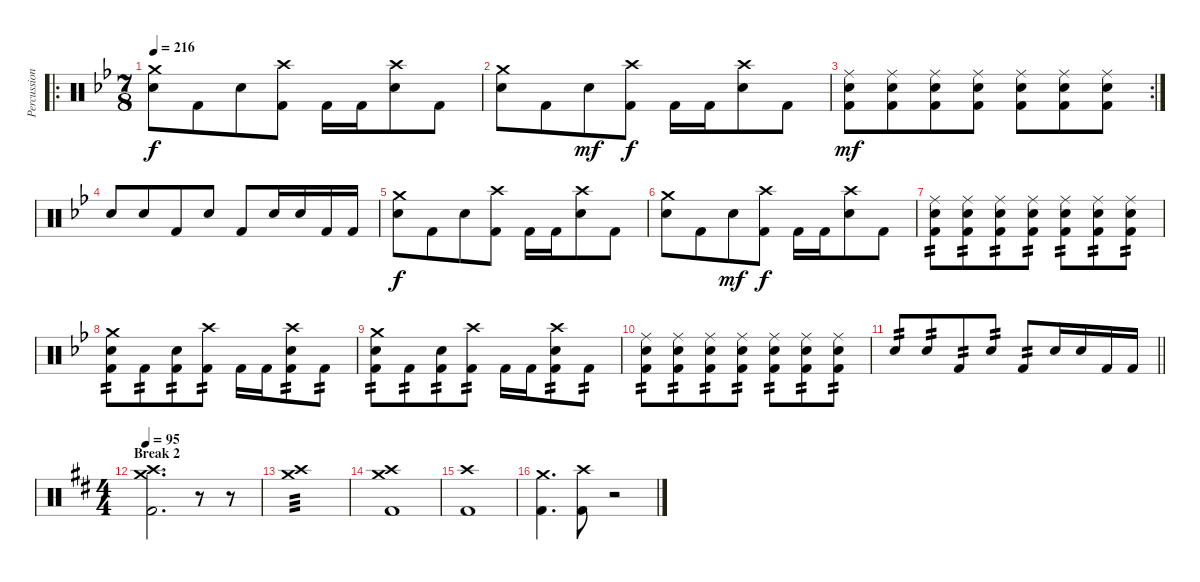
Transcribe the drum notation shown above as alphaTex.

\track ("Percussion" "Percussion") {instrument percussion}
\staff {score}
\articulation defaults
\ro
\ts (7 8)
\tempo 216
\clef neutral
\ks gminor
("Crash medium (hit)" "Electric Snare (hit)").8{dy f} "Kick (hit) 2".8 "Electric Snare (hit)".8 ("Crash high (hit)" "Kick (hit) 2").8 "Kick (hit) 2".16 "Kick (hit) 2".16 ("Crash high (hit)" "Electric Snare (hit)").8 "Kick (hit) 2".8 |
("Crash medium (hit)" "Electric Snare (hit)").8 "Kick (hit) 2".8 "Electric Snare (hit)".8{dy mf} ("Crash high (hit)" "Kick (hit) 2").8{dy f} "Kick (hit) 2".16 "Kick (hit) 2".16 ("Crash high (hit)" "Electric Snare (hit)").8 "Kick (hit) 2".8 |
\rc 2
("Ride (middle)" "Electric Snare (hit)" "Kick (hit) 2").8{dy mf} ("Ride (middle)" "Electric Snare (hit)" "Kick (hit) 2").8 ("Ride (middle)" "Electric Snare (hit)" "Kick (hit) 2").8 ("Ride (middle)" "Electric Snare (hit)" "Kick (hit) 2").8 ("Ride (middle)" "Electric Snare (hit)" "Kick (hit) 2").8 ("Ride (middle)" "Electric Snare (hit)" "Kick (hit) 2").8 ("Ride (middle)" "Electric Snare (hit)" "Kick (hit) 2").8 |
"Electric Snare (hit)".8 "Electric Snare (hit)".8 "Kick (hit) 2".8 "Electric Snare (hit)".8 "Kick (hit) 2".8 "Electric Snare (hit)".16 "Electric Snare (hit)".16 "Kick (hit) 2".16 "Kick (hit) 2".16 |
("Crash medium (hit)" "Electric Snare (hit)").8{dy f} "Kick (hit) 2".8 "Electric Snare (hit)".8 ("Crash high (hit)" "Kick (hit) 2").8 "Kick (hit) 2".16 "Kick (hit) 2".16 ("Crash high (hit)" "Electric Snare (hit)").8 "Kick (hit) 2".8 |
("Crash medium (hit)" "Electric Snare (hit)").8 "Kick (hit) 2".8 "Electric Snare (hit)".8{dy mf} ("Crash high (hit)" "Kick (hit) 2").8{dy f} "Kick (hit) 2".16 "Kick (hit) 2".16 ("Crash high (hit)" "Electric Snare (hit)").8 "Kick (hit) 2".8 |
("Ride (middle)" "Electric Snare (hit)" "Kick (hit) 2").8{tp 2} ("Ride (middle)" "Electric Snare (hit)" "Kick (hit) 2").8{tp 2} ("Ride (middle)" "Electric Snare (hit)" "Kick (hit) 2").8{tp 2} ("Ride (middle)" "Electric Snare (hit)" "Kick (hit) 2").8{tp 2} ("Ride (middle)" "Electric Snare (hit)" "Kick (hit) 2").8{tp 2} ("Ride (middle)" "Electric Snare (hit)" "Kick (hit) 2").8{tp 2} ("Ride (middle)" "Electric Snare (hit)" "Kick (hit) 2").8{tp 2} |
("Crash medium (hit)" "Electric Snare (hit)" "Kick (hit) 2").8{tp 2} "Kick (hit) 2".8{tp 2} ("Electric Snare (hit)" "Kick (hit) 2").8{tp 2} ("Crash high (hit)" "Kick (hit) 2").8{tp 2} "Kick (hit) 2".16 "Kick (hit) 2".16 ("Crash high (hit)" "Electric Snare (hit)" "Kick (hit) 2").8{tp 2} "Kick (hit) 2".8{tp 2} |
("Crash medium (hit)" "Electric Snare (hit)" "Kick (hit) 2").8{tp 2} "Kick (hit) 2".8{tp 2} ("Electric Snare (hit)" "Kick (hit) 2").8{tp 2} ("Crash high (hit)" "Kick (hit) 2").8{tp 2} "Kick (hit) 2".16 "Kick (hit) 2".16 ("Crash high (hit)" "Electric Snare (hit)" "Kick (hit) 2").8{tp 2} "Kick (hit) 2".8{tp 2} |
("Ride (middle)" "Electric Snare (hit)" "Kick (hit) 2").8{tp 2} ("Ride (middle)" "Electric Snare (hit)" "Kick (hit) 2").8{tp 2} ("Ride (middle)" "Electric Snare (hit)" "Kick (hit) 2").8{tp 2} ("Ride (middle)" "Electric Snare (hit)" "Kick (hit) 2").8{tp 2} ("Ride (middle)" "Electric Snare (hit)" "Kick (hit) 2").8{tp 2} ("Ride (middle)" "Electric Snare (hit)" "Kick (hit) 2").8{tp 2} ("Ride (middle)" "Electric Snare (hit)" "Kick (hit) 2").8{tp 2} |
\barLineRight lightlight "Electric Snare (hit)".8{tp 2} "Electric Snare (hit)".8{tp 2} "Kick (hit) 2".8{tp 2} "Electric Snare (hit)".8{tp 2} "Kick (hit) 2".8{tp 2} "Electric Snare (hit)".16 "Electric Snare (hit)".16 "Kick (hit) 2".16 "Kick (hit) 2".16
|
\ts (4 4)
\section ("" "Break 2")
\tempo 95
\ks bminor
("Crash medium (hit)" "Crash high (hit)" "Kick (hit) 2").2{d} r.8 r.8{volume 0} |
("Crash high (hit)" "Crash medium (hit)").1{tp 3 volume 16} |
("Crash high (hit)" "Crash medium (hit)" "Kick (hit) 2").1 |
("Crash high (hit)" "Kick (hit) 2").1 |
("Crash medium (hit)" "Kick (hit) 2").4{d} ("Crash high (hit)" "Kick (hit) 2").8 r.2
